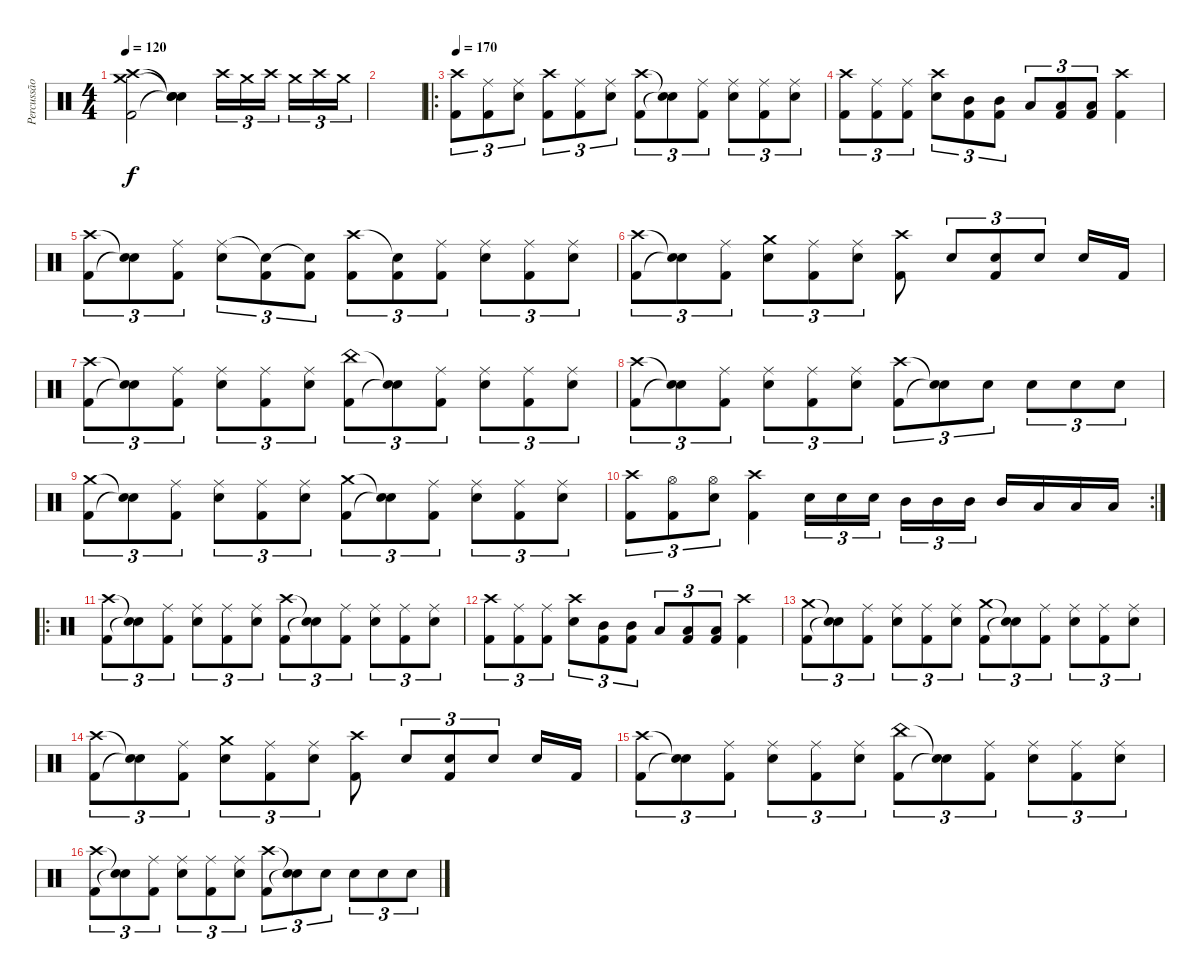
\track ("Percussão" "Percussão") {instrument percussion}
\staff {score}
\articulation defaults
\ts (4 4)
\tempo 120
\clef neutral
\ks c
("Crash medium (hit)" "Kick (hit) 2" "Crash high (hit)").2{dy f} ("Snare (hit)"{t} "Snare (hit)"{t} "Snare (hit)"{t}).4 "Crash high (hit)".16{tu (3 2)} "Crash medium (hit)".16{tu (3 2)} "Crash high (hit)".16{tu (3 2)} "Crash medium (hit)".16{tu (3 2)} "Crash high (hit)".16{tu (3 2)} "Crash medium (hit)".16{tu (3 2)} |
|
\ro
\tempo 170
("Crash high (hit)" "Kick (hit) 2").8{tu (3 2)} ("Ride (middle)" "Kick (hit) 2").8{tu (3 2)} ("Ride (middle)" "Snare (hit) 2").8{tu (3 2)} ("Crash high (hit)" "Kick (hit) 2").8{tu (3 2)} ("Ride (middle)" "Kick (hit) 2").8{tu (3 2)} ("Ride (middle)" "Snare (hit) 2").8{tu (3 2)} ("Kick (hit) 2" "Crash high (hit)").8{tu (3 2)} ("Snare (hit)"{t} "Snare (hit)"{t}).8{tu (3 2)} ("Ride (middle)" "Kick (hit) 2").8{tu (3 2)} ("Ride (middle)" "Snare (hit) 2").8{tu (3 2)} ("Ride (middle)" "Kick (hit) 2").8{tu (3 2)} ("Ride (middle)" "Snare (hit) 2").8{tu (3 2)} |
("Crash high (hit)" "Kick (hit) 2").8{tu (3 2)} ("Ride (middle)" "Kick (hit) 2").8{tu (3 2)} ("Ride (middle)" "Kick (hit) 2").8{tu (3 2)} ("Crash high (hit)" "Snare (hit) 2").8{tu (3 2)} ("Kick (hit) 2" "Mid Tom (hit)").8{tu (3 2)} ("Kick (hit) 2" "Mid Tom (hit)").8{tu (3 2)} "Low Tom (hit)".8{tu (3 2)} ("Kick (hit) 2" "Low Tom (hit)").8{tu (3 2)} ("Kick (hit) 2" "Low Tom (hit)").8{tu (3 2)} ("Kick (hit) 2" "Crash high (hit)").4 |
("Crash high (hit)" "Kick (hit) 2").8{tu (3 2)} ("Snare (hit)"{t} "Snare (hit)"{t}).8{tu (3 2)} ("Ride (middle)" "Kick (hit) 2").8{tu (3 2)} ("Ride (middle)" "Snare (hit) 2").8{tu (3 2)} ("Snare (hit)"{t} "Kick (hit) 2").8{tu (3 2)} ("Snare (hit)"{t} "Kick (hit) 2").8{tu (3 2)} ("Crash high (hit)" "Kick (hit) 2").8{tu (3 2)} ("Snare (hit)"{t} "Kick (hit) 2").8{tu (3 2)} ("Ride (middle)" "Kick (hit) 2").8{tu (3 2)} ("Ride (middle)" "Snare (hit) 2").8{tu (3 2)} ("Ride (middle)" "Kick (hit) 2").8{tu (3 2)} ("Ride (middle)" "Snare (hit) 2").8{tu (3 2)} |
("Crash high (hit)" "Kick (hit) 2").8{tu (3 2)} ("Snare (hit)"{t} "Snare (hit)"{t}).8{tu (3 2)} ("Ride (middle)" "Kick (hit) 2").8{tu (3 2)} ("Crash medium (hit)" "Snare (hit) 2").8{tu (3 2)} ("Ride (middle)" "Kick (hit) 2").8{tu (3 2)} ("Ride (middle)" "Snare (hit) 2").8{tu (3 2)} ("Kick (hit) 2" "Crash high (hit)").8 "Snare (hit) 2".8{tu (3 2)} ("Kick (hit) 2" "Snare (hit) 2").8{tu (3 2)} "Snare (hit) 2".8{tu (3 2)} "Snare (hit) 2".16 "Kick (hit) 2".16 |
("Kick (hit) 2" "Crash high (hit)").8{tu (3 2)} ("Snare (hit)"{t} "Snare (hit)"{t}).8{tu (3 2)} ("Ride (middle)" "Kick (hit) 2").8{tu (3 2)} ("Ride (middle)" "Snare (hit) 2").8{tu (3 2)} ("Ride (middle)" "Kick (hit) 2").8{tu (3 2)} ("Ride (middle)" "Snare (hit) 2").8{tu (3 2)} ("China (hit)" "Kick (hit) 2").8{tu (3 2)} ("Snare (hit)"{t} "Snare (hit)"{t}).8{tu (3 2)} ("Ride (middle)" "Kick (hit) 2").8{tu (3 2)} ("Ride (middle)" "Snare (hit) 2").8{tu (3 2)} ("Ride (middle)" "Kick (hit) 2").8{tu (3 2)} ("Ride (middle)" "Snare (hit) 2").8{tu (3 2)} |
("Kick (hit) 2" "Crash high (hit)").8{tu (3 2)} ("Snare (hit)"{t} "Snare (hit)"{t}).8{tu (3 2)} ("Ride (middle)" "Kick (hit) 2").8{tu (3 2)} ("Ride (middle)" "Snare (hit) 2").8{tu (3 2)} ("Ride (middle)" "Kick (hit) 2").8{tu (3 2)} ("Ride (middle)" "Snare (hit) 2").8{tu (3 2)} ("Crash high (hit)" "Kick (hit) 2").8{tu (3 2)} ("Snare (hit)"{t} "Snare (hit)"{t}).8{tu (3 2)} "Snare (hit) 2".8{tu (3 2)} "Snare (hit) 2".8{tu (3 2)} "Snare (hit) 2".8{tu (3 2)} "Snare (hit) 2".8{tu (3 2)} |
("Crash medium (hit)" "Kick (hit) 2").8{tu (3 2)} ("Snare (hit)"{t} "Snare (hit)"{t}).8{tu (3 2)} ("Ride (middle)" "Kick (hit) 2").8{tu (3 2)} ("Ride (middle)" "Snare (hit) 2").8{tu (3 2)} ("Ride (middle)" "Kick (hit) 2").8{tu (3 2)} ("Ride (middle)" "Snare (hit) 2").8{tu (3 2)} ("Crash medium (hit)" "Kick (hit) 2").8{tu (3 2)} ("Snare (hit)"{t} "Snare (hit)"{t}).8{tu (3 2)} ("Ride (middle)" "Kick (hit) 2").8{tu (3 2)} ("Ride (middle)" "Snare (hit) 2").8{tu (3 2)} ("Ride (middle)" "Kick (hit) 2").8{tu (3 2)} ("Ride (middle)" "Snare (hit) 2").8{tu (3 2)} |
\rc 2
("Crash high (hit)" "Kick (hit) 2").8{tu (3 2)} ("Hi-Hat (open)" "Kick (hit) 2").8{tu (3 2)} ("Hi-Hat (open)" "Snare (hit) 2").8{tu (3 2)} ("Kick (hit) 2" "Crash high (hit)").4 "Snare (hit) 2".16{tu (3 2)} "Snare (hit) 2".16{tu (3 2)} "Snare (hit) 2".16{tu (3 2)} "Mid Tom (hit)".16{tu (3 2)} "Mid Tom (hit)".16{tu (3 2)} "Mid Tom (hit)".16{tu (3 2)} "Mid Tom (hit)".16 "Low Tom (hit)".16 "Low Tom (hit)".16 "Low Tom (hit)".16 |
\ro
("Crash high (hit)" "Kick (hit) 2").8{tu (3 2)} ("Snare (hit)"{t} "Snare (hit)"{t}).8{tu (3 2)} ("Ride (middle)" "Kick (hit) 2").8{tu (3 2)} ("Ride (middle)" "Snare (hit) 2").8{tu (3 2)} ("Ride (middle)" "Kick (hit) 2").8{tu (3 2)} ("Ride (middle)" "Snare (hit) 2").8{tu (3 2)} ("Crash high (hit)" "Kick (hit) 2").8{tu (3 2)} ("Snare (hit)"{t} "Snare (hit)"{t}).8{tu (3 2)} ("Ride (middle)" "Kick (hit) 2").8{tu (3 2)} ("Ride (middle)" "Snare (hit) 2").8{tu (3 2)} ("Ride (middle)" "Kick (hit) 2").8{tu (3 2)} ("Ride (middle)" "Snare (hit) 2").8{tu (3 2)} |
("Crash high (hit)" "Kick (hit) 2").8{tu (3 2)} ("Ride (middle)" "Kick (hit) 2").8{tu (3 2)} ("Ride (middle)" "Kick (hit) 2").8{tu (3 2)} ("Crash high (hit)" "Snare (hit) 2").8{tu (3 2)} ("Kick (hit) 2" "Mid Tom (hit)").8{tu (3 2)} ("Kick (hit) 2" "Mid Tom (hit)").8{tu (3 2)} "Low Tom (hit)".8{tu (3 2)} ("Kick (hit) 2" "Low Tom (hit)").8{tu (3 2)} ("Kick (hit) 2" "Low Tom (hit)").8{tu (3 2)} ("Kick (hit) 2" "Crash high (hit)").4 |
("Crash medium (hit)" "Kick (hit) 2").8{tu (3 2)} ("Snare (hit)"{t} "Snare (hit)"{t}).8{tu (3 2)} ("Ride (middle)" "Kick (hit) 2").8{tu (3 2)} ("Ride (middle)" "Snare (hit) 2").8{tu (3 2)} ("Ride (middle)" "Kick (hit) 2").8{tu (3 2)} ("Ride (middle)" "Snare (hit) 2").8{tu (3 2)} ("Crash medium (hit)" "Kick (hit) 2").8{tu (3 2)} ("Snare (hit)"{t} "Snare (hit)"{t}).8{tu (3 2)} ("Ride (middle)" "Kick (hit) 2").8{tu (3 2)} ("Ride (middle)" "Snare (hit) 2").8{tu (3 2)} ("Ride (middle)" "Kick (hit) 2").8{tu (3 2)} ("Ride (middle)" "Snare (hit) 2").8{tu (3 2)} |
("Crash high (hit)" "Kick (hit) 2").8{tu (3 2)} ("Snare (hit)"{t} "Snare (hit)"{t}).8{tu (3 2)} ("Ride (middle)" "Kick (hit) 2").8{tu (3 2)} ("Crash medium (hit)" "Snare (hit) 2").8{tu (3 2)} ("Ride (middle)" "Kick (hit) 2").8{tu (3 2)} ("Ride (middle)" "Snare (hit) 2").8{tu (3 2)} ("Kick (hit) 2" "Crash high (hit)").8 "Snare (hit) 2".8{tu (3 2)} ("Kick (hit) 2" "Snare (hit) 2").8{tu (3 2)} "Snare (hit) 2".8{tu (3 2)} "Snare (hit) 2".16 "Kick (hit) 2".16 |
("Kick (hit) 2" "Crash high (hit)").8{tu (3 2)} ("Snare (hit)"{t} "Snare (hit)"{t}).8{tu (3 2)} ("Ride (middle)" "Kick (hit) 2").8{tu (3 2)} ("Ride (middle)" "Snare (hit) 2").8{tu (3 2)} ("Ride (middle)" "Kick (hit) 2").8{tu (3 2)} ("Ride (middle)" "Snare (hit) 2").8{tu (3 2)} ("China (hit)" "Kick (hit) 2").8{tu (3 2)} ("Snare (hit)"{t} "Snare (hit)"{t}).8{tu (3 2)} ("Ride (middle)" "Kick (hit) 2").8{tu (3 2)} ("Ride (middle)" "Snare (hit) 2").8{tu (3 2)} ("Ride (middle)" "Kick (hit) 2").8{tu (3 2)} ("Ride (middle)" "Snare (hit) 2").8{tu (3 2)} |
("Kick (hit) 2" "Crash high (hit)").8{tu (3 2)} ("Snare (hit)"{t} "Snare (hit)"{t}).8{tu (3 2)} ("Ride (middle)" "Kick (hit) 2").8{tu (3 2)} ("Ride (middle)" "Snare (hit) 2").8{tu (3 2)} ("Ride (middle)" "Kick (hit) 2").8{tu (3 2)} ("Ride (middle)" "Snare (hit) 2").8{tu (3 2)} ("Crash high (hit)" "Kick (hit) 2").8{tu (3 2)} ("Snare (hit)"{t} "Snare (hit)"{t}).8{tu (3 2)} "Snare (hit) 2".8{tu (3 2)} "Snare (hit) 2".8{tu (3 2)} "Snare (hit) 2".8{tu (3 2)} "Snare (hit) 2".8{tu (3 2)}
